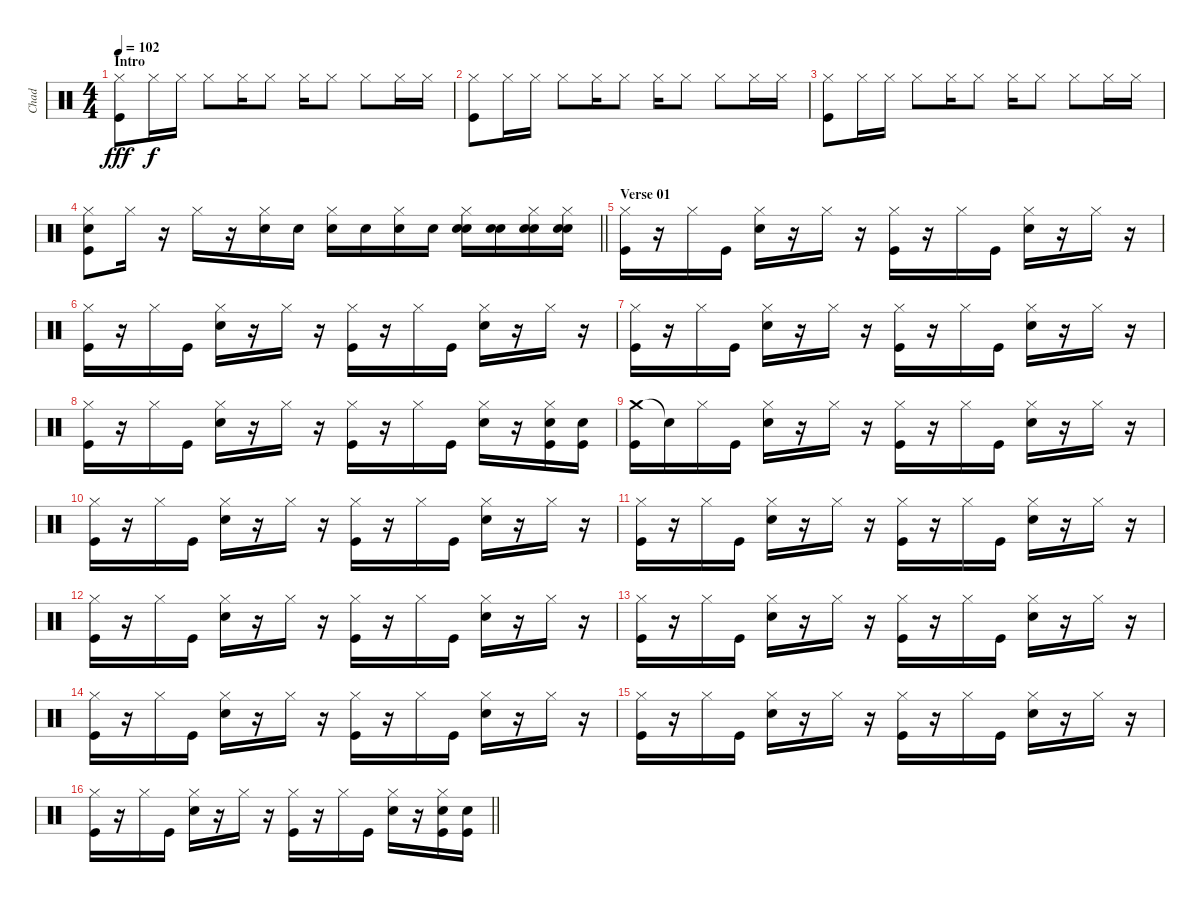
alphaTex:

\track ("Chad" "Chad") {instrument percussion}
\staff {score}
\articulation defaults
\ts (4 4)
\section ("" "Intro")
\tempo 102
\clef neutral
\ks c
("Hi-Hat (closed)" "Kick (hit)").8{dy fff} "Hi-Hat (closed)".16{dy f} "Hi-Hat (closed)".16 "Hi-Hat (closed)".8 "Hi-Hat (closed)".16 "Hi-Hat (closed)".8 "Hi-Hat (closed)".16 "Hi-Hat (closed)".8 "Hi-Hat (closed)".8 "Hi-Hat (closed)".16 "Hi-Hat (closed)".16 |
("Hi-Hat (closed)" "Kick (hit)").8 "Hi-Hat (closed)".16 "Hi-Hat (closed)".16 "Hi-Hat (closed)".8 "Hi-Hat (closed)".16 "Hi-Hat (closed)".8 "Hi-Hat (closed)".16 "Hi-Hat (closed)".8 "Hi-Hat (closed)".8 "Hi-Hat (closed)".16 "Hi-Hat (closed)".16 |
("Hi-Hat (closed)" "Kick (hit)").8 "Hi-Hat (closed)".16 "Hi-Hat (closed)".16 "Hi-Hat (closed)".8 "Hi-Hat (closed)".16 "Hi-Hat (closed)".8 "Hi-Hat (closed)".16 "Hi-Hat (closed)".8 "Hi-Hat (closed)".8 "Hi-Hat (closed)".16 "Hi-Hat (closed)".16 |
\barLineRight lightlight
("Hi-Hat (closed)" "Snare (hit) 2" "Kick (hit)").8 "Hi-Hat (closed)".16 r.16 "Hi-Hat (closed)".16 r.16 ("Hi-Hat (closed)" "Snare (hit) 2").16 "Snare (hit) 2".16 ("Hi-Hat (closed)" "Snare (hit) 2").16 "Snare (hit) 2".16 ("Hi-Hat (closed)" "Snare (hit) 2").16 "Snare (hit) 2".16 ("Hi-Hat (closed)" "Electric Snare (hit)" "Snare (hit) 2").16 ("Electric Snare (hit)" "Snare (hit) 2").16 ("Hi-Hat (closed)" "Electric Snare (hit)" "Snare (hit) 2").16 ("Hi-Hat (closed)" "Electric Snare (hit)" "Snare (hit) 2").16 |
\section ("" "Verse 01")
("Hi-Hat (closed)" "Kick (hit)").16 r.16 "Hi-Hat (closed)".16 "Kick (hit)".16 ("Hi-Hat (closed)" "Snare (hit) 2").16 r.16 "Hi-Hat (closed)".16 r.16 ("Hi-Hat (closed)" "Kick (hit)").16 r.16 "Hi-Hat (closed)".16 "Kick (hit)".16 ("Hi-Hat (closed)" "Snare (hit) 2").16 r.16 "Hi-Hat (closed)".16 r.16 |
("Hi-Hat (closed)" "Kick (hit)").16 r.16 "Hi-Hat (closed)".16 "Kick (hit)".16 ("Hi-Hat (closed)" "Electric Snare (hit)").16 r.16 "Hi-Hat (closed)".16 r.16 ("Hi-Hat (closed)" "Kick (hit)").16 r.16 "Hi-Hat (closed)".16 "Kick (hit)".16 ("Hi-Hat (closed)" "Snare (hit) 2").16 r.16 "Hi-Hat (closed)".16 r.16 |
("Hi-Hat (closed)" "Kick (hit)").16 r.16 "Hi-Hat (closed)".16 "Kick (hit)".16 ("Hi-Hat (closed)" "Snare (hit) 2").16 r.16 "Hi-Hat (closed)".16 r.16 ("Hi-Hat (closed)" "Kick (hit)").16 r.16 "Hi-Hat (closed)".16 "Kick (hit)".16 ("Hi-Hat (closed)" "Snare (hit) 2").16 r.16 "Hi-Hat (closed)".16 r.16 |
("Hi-Hat (closed)" "Kick (hit)").16 r.16 "Hi-Hat (closed)".16 "Kick (hit)".16 ("Hi-Hat (closed)" "Snare (hit) 2").16 r.16 "Hi-Hat (closed)".16 r.16 ("Hi-Hat (closed)" "Kick (hit)").16 r.16 "Hi-Hat (closed)".16 "Kick (hit)".16 ("Hi-Hat (closed)" "Snare (hit) 2").16 r.16 ("Hi-Hat (closed)" "Snare (hit) 2" "Kick (hit)").16 ("Snare (hit) 2" "Kick (hit)").16 |
("Crash medium (hit)" "Kick (hit)").16 "Snare (hit)"{t}.16 "Hi-Hat (closed)".16 "Kick (hit)".16 ("Hi-Hat (closed)" "Snare (hit) 2").16 r.16 "Hi-Hat (closed)".16 r.16 ("Hi-Hat (closed)" "Kick (hit)").16 r.16 "Hi-Hat (closed)".16 "Kick (hit)".16 ("Hi-Hat (closed)" "Snare (hit) 2").16 r.16 "Hi-Hat (closed)".16 r.16 |
("Hi-Hat (closed)" "Kick (hit)").16 r.16 "Hi-Hat (closed)".16 "Kick (hit)".16 ("Hi-Hat (closed)" "Snare (hit) 2").16 r.16 "Hi-Hat (closed)".16 r.16 ("Hi-Hat (closed)" "Kick (hit)").16 r.16 "Hi-Hat (closed)".16 "Kick (hit)".16 ("Hi-Hat (closed)" "Snare (hit) 2").16 r.16 "Hi-Hat (closed)".16 r.16 |
("Hi-Hat (closed)" "Kick (hit)").16 r.16 "Hi-Hat (closed)".16 "Kick (hit)".16 ("Hi-Hat (closed)" "Snare (hit) 2").16 r.16 "Hi-Hat (closed)".16 r.16 ("Hi-Hat (closed)" "Kick (hit)").16 r.16 "Hi-Hat (closed)".16 "Kick (hit)".16 ("Hi-Hat (closed)" "Snare (hit) 2").16 r.16 "Hi-Hat (closed)".16 r.16 |
("Hi-Hat (closed)" "Kick (hit)").16 r.16 "Hi-Hat (closed)".16 "Kick (hit)".16 ("Hi-Hat (closed)" "Snare (hit) 2").16 r.16 "Hi-Hat (closed)".16 r.16 ("Hi-Hat (closed)" "Kick (hit)").16 r.16 "Hi-Hat (closed)".16 "Kick (hit)".16 ("Hi-Hat (closed)" "Snare (hit) 2").16 r.16 "Hi-Hat (closed)".16 r.16 |
("Hi-Hat (closed)" "Kick (hit)").16 r.16 "Hi-Hat (closed)".16 "Kick (hit)".16 ("Hi-Hat (closed)" "Snare (hit) 2").16 r.16 "Hi-Hat (closed)".16 r.16 ("Hi-Hat (closed)" "Kick (hit)").16 r.16 "Hi-Hat (closed)".16 "Kick (hit)".16 ("Hi-Hat (closed)" "Snare (hit) 2").16 r.16 "Hi-Hat (closed)".16 r.16 |
("Hi-Hat (closed)" "Kick (hit)").16 r.16 "Hi-Hat (closed)".16 "Kick (hit)".16 ("Hi-Hat (closed)" "Snare (hit) 2").16 r.16 "Hi-Hat (closed)".16 r.16 ("Hi-Hat (closed)" "Kick (hit)").16 r.16 "Hi-Hat (closed)".16 "Kick (hit)".16 ("Hi-Hat (closed)" "Snare (hit) 2").16 r.16 "Hi-Hat (closed)".16 r.16 |
("Hi-Hat (closed)" "Kick (hit)").16 r.16 "Hi-Hat (closed)".16 "Kick (hit)".16 ("Hi-Hat (closed)" "Snare (hit) 2").16 r.16 "Hi-Hat (closed)".16 r.16 ("Hi-Hat (closed)" "Kick (hit)").16 r.16 "Hi-Hat (closed)".16 "Kick (hit)".16 ("Hi-Hat (closed)" "Snare (hit) 2").16 r.16 "Hi-Hat (closed)".16 r.16 |
\barLineRight lightlight
("Hi-Hat (closed)" "Kick (hit)").16 r.16 "Hi-Hat (closed)".16 "Kick (hit)".16 ("Hi-Hat (closed)" "Snare (hit) 2").16 r.16 "Hi-Hat (closed)".16 r.16 ("Hi-Hat (closed)" "Kick (hit)").16 r.16 "Hi-Hat (closed)".16 "Kick (hit)".16 ("Hi-Hat (closed)" "Snare (hit) 2").16 r.16 ("Hi-Hat (closed)" "Snare (hit) 2" "Kick (hit)").16 ("Snare (hit) 2" "Kick (hit)").16
